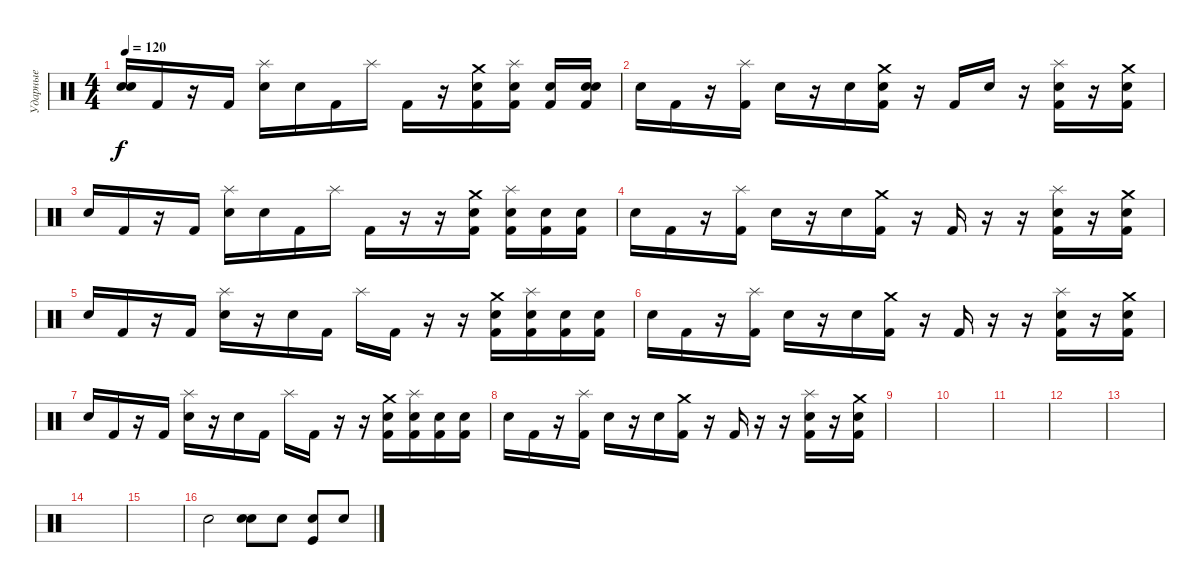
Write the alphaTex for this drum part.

\track ("Ударные" "Ударные") {instrument percussion}
\staff {score}
\articulation defaults
\ts (4 4)
\tempo 120
\clef neutral
\ks c
("Snare (hit)" "Electric Snare (hit)").16{dy f} "Kick (hit) 2".16 r.16 "Kick (hit) 2".16 ("Splash (hit)" "Electric Snare (hit)").16 "Electric Snare (hit)".16 "Kick (hit) 2".16 "Splash (hit)".16 "Kick (hit) 2".16 r.16 ("Crash medium (hit)" "Electric Snare (hit)" "Kick (hit) 2").16 ("Splash (hit)" "Electric Snare (hit)" "Kick (hit) 2").16 ("Electric Snare (hit)" "Kick (hit) 2").16 ("Snare (hit)" "Electric Snare (hit)" "Kick (hit) 2").16 |
"Electric Snare (hit)".16 "Kick (hit) 2".16 r.16 ("Splash (hit)" "Kick (hit) 2").16 "Electric Snare (hit)".16 r.16 "Electric Snare (hit)".16 ("Crash medium (hit)" "Snare (hit)" "Kick (hit) 2").16 r.16 "Kick (hit) 2".16 "Snare (hit)".16 r.16 ("Splash (hit)" "Electric Snare (hit)" "Kick (hit) 2").16 r.16 ("Crash medium (hit)" "Electric Snare (hit)" "Kick (hit) 2").16 |
"Electric Snare (hit)".16 "Kick (hit) 2".16 r.16 "Kick (hit) 2".16 ("Splash (hit)" "Electric Snare (hit)").16 "Electric Snare (hit)".16 "Kick (hit) 2".16 "Splash (hit)".16 "Kick (hit) 2".16 r.16 r.16 ("Crash medium (hit)" "Electric Snare (hit)" "Kick (hit) 2").16 ("Splash (hit)" "Electric Snare (hit)" "Kick (hit) 2").16 ("Electric Snare (hit)" "Kick (hit) 2").16 ("Electric Snare (hit)" "Kick (hit) 2").16 |
"Electric Snare (hit)".16 "Kick (hit) 2".16 r.16 ("Splash (hit)" "Kick (hit) 2").16 "Electric Snare (hit)".16 r.16 "Electric Snare (hit)".16 ("Crash medium (hit)" "Kick (hit) 2").16 r.16 "Kick (hit) 2".16 r.16 r.16 ("Splash (hit)" "Electric Snare (hit)" "Kick (hit) 2").16 r.16 ("Crash medium (hit)" "Electric Snare (hit)" "Kick (hit) 2").16 |
"Electric Snare (hit)".16 "Kick (hit) 2".16 r.16 "Kick (hit) 2".16 ("Splash (hit)" "Electric Snare (hit)").16 r.16 "Electric Snare (hit)".16 "Kick (hit) 2".16 "Splash (hit)".16 "Kick (hit) 2".16 r.16 r.16 ("Crash medium (hit)" "Electric Snare (hit)" "Kick (hit) 2").16 ("Splash (hit)" "Electric Snare (hit)" "Kick (hit) 2").16 ("Electric Snare (hit)" "Kick (hit) 2").16 ("Electric Snare (hit)" "Kick (hit) 2").16 |
"Electric Snare (hit)".16 "Kick (hit) 2".16 r.16 ("Splash (hit)" "Kick (hit) 2").16 "Electric Snare (hit)".16 r.16 "Electric Snare (hit)".16 ("Crash medium (hit)" "Kick (hit) 2").16 r.16 "Kick (hit) 2".16 r.16 r.16 ("Splash (hit)" "Electric Snare (hit)" "Kick (hit) 2").16 r.16 ("Crash medium (hit)" "Electric Snare (hit)" "Kick (hit) 2").16 |
"Electric Snare (hit)".16 "Kick (hit) 2".16 r.16 "Kick (hit) 2".16 ("Splash (hit)" "Electric Snare (hit)").16 r.16 "Electric Snare (hit)".16 "Kick (hit) 2".16 "Splash (hit)".16 "Kick (hit) 2".16 r.16 r.16 ("Crash medium (hit)" "Electric Snare (hit)" "Kick (hit) 2").16 ("Splash (hit)" "Electric Snare (hit)" "Kick (hit) 2").16 ("Electric Snare (hit)" "Kick (hit) 2").16 ("Electric Snare (hit)" "Kick (hit) 2").16 |
"Electric Snare (hit)".16 "Kick (hit) 2".16 r.16 ("Splash (hit)" "Kick (hit) 2").16 "Electric Snare (hit)".16 r.16 "Electric Snare (hit)".16 ("Crash medium (hit)" "Kick (hit) 2").16 r.16 "Kick (hit) 2".16 r.16 r.16 ("Splash (hit)" "Electric Snare (hit)" "Kick (hit) 2").16 r.16 ("Crash medium (hit)" "Electric Snare (hit)" "Kick (hit) 2").16 |
|
|
|
|
|
|
|
"Snare (hit)".2 ("Snare (hit)" "Electric Snare (hit)").8 "Electric Snare (hit)".8 ("Electric Snare (hit)" "Kick (hit)").8 "Electric Snare (hit)".8
